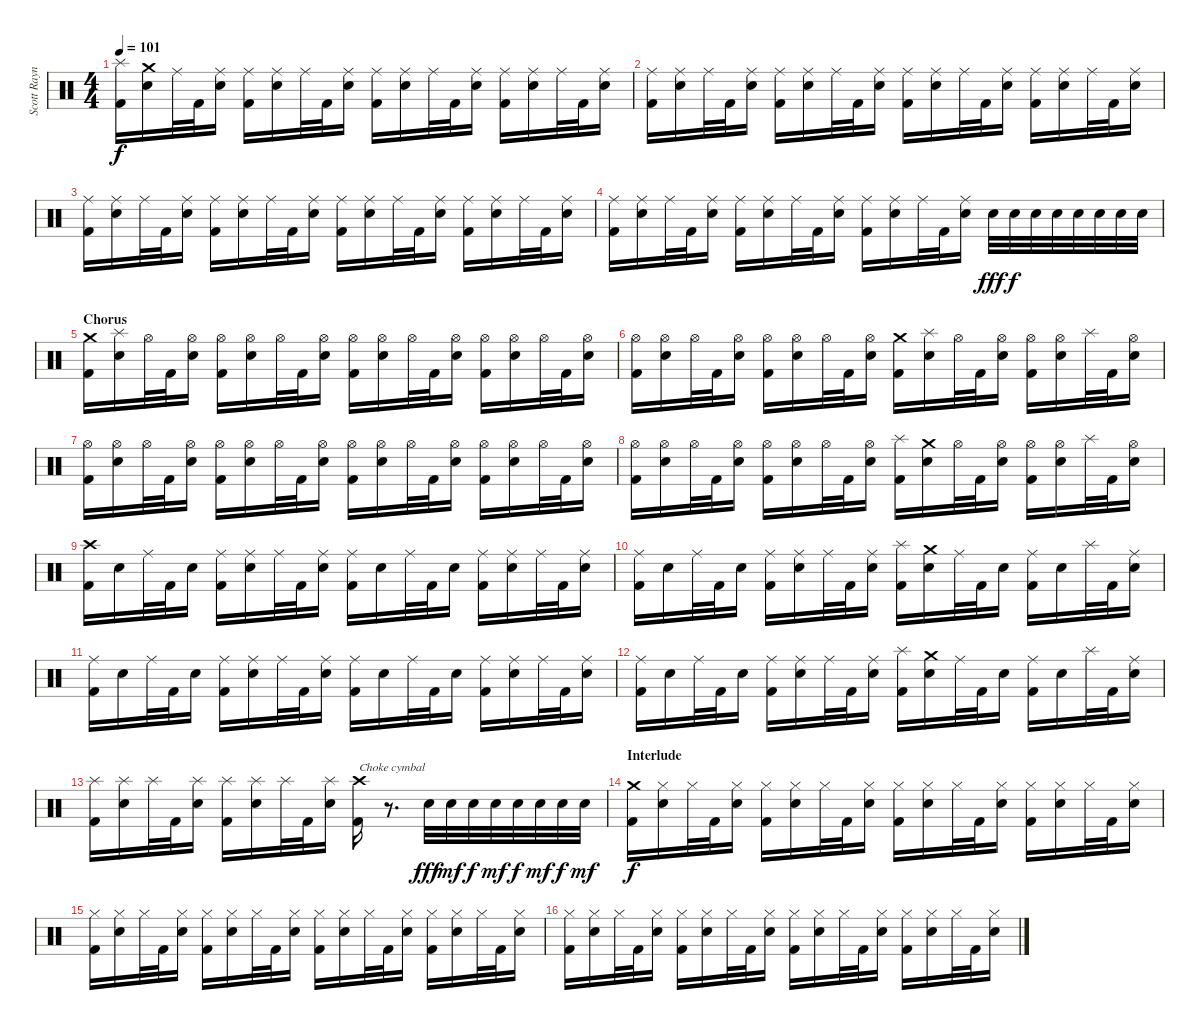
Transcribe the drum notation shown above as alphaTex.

\track ("Scott Raynor" "Scott Rayn") {instrument percussion}
\staff {score}
\articulation defaults
\ts (4 4)
\tempo 101
\clef neutral
\ks c
("Splash (hit)" "Kick (hit) 2").16{dy f} ("Crash medium (hit)" "Electric Snare (hit)").16 "Ride (middle)".32 "Kick (hit) 2".32 ("Ride (middle)" "Electric Snare (hit)").16 ("Ride (middle)" "Kick (hit) 2").16 ("Ride (middle)" "Electric Snare (hit)").16 "Ride (middle)".32 "Kick (hit) 2".32 ("Ride (middle)" "Electric Snare (hit)").16 ("Ride (middle)" "Kick (hit) 2").16 ("Ride (middle)" "Electric Snare (hit)").16 "Ride (middle)".32 "Kick (hit) 2".32 ("Ride (middle)" "Electric Snare (hit)").16 ("Ride (middle)" "Kick (hit) 2").16 ("Ride (middle)" "Electric Snare (hit)").16 "Ride (middle)".32 "Kick (hit) 2".32 ("Ride (middle)" "Electric Snare (hit)").16 |
("Ride (middle)" "Kick (hit) 2").16 ("Ride (middle)" "Electric Snare (hit)").16 "Ride (middle)".32 "Kick (hit) 2".32 ("Ride (middle)" "Electric Snare (hit)").16 ("Ride (middle)" "Kick (hit) 2").16 ("Ride (middle)" "Electric Snare (hit)").16 "Ride (middle)".32 "Kick (hit) 2".32 ("Ride (middle)" "Electric Snare (hit)").16 ("Ride (middle)" "Kick (hit) 2").16 ("Ride (middle)" "Electric Snare (hit)").16 "Ride (middle)".32 "Kick (hit) 2".32 ("Ride (middle)" "Electric Snare (hit)").16 ("Ride (middle)" "Kick (hit) 2").16 ("Ride (middle)" "Electric Snare (hit)").16 "Ride (middle)".32 "Kick (hit) 2".32 ("Ride (middle)" "Electric Snare (hit)").16 |
("Ride (middle)" "Kick (hit) 2").16 ("Ride (middle)" "Electric Snare (hit)").16 "Ride (middle)".32 "Kick (hit) 2".32 ("Ride (middle)" "Electric Snare (hit)").16 ("Ride (middle)" "Kick (hit) 2").16 ("Ride (middle)" "Electric Snare (hit)").16 "Ride (middle)".32 "Kick (hit) 2".32 ("Ride (middle)" "Electric Snare (hit)").16 ("Ride (middle)" "Kick (hit) 2").16 ("Ride (middle)" "Electric Snare (hit)").16 "Ride (middle)".32 "Kick (hit) 2".32 ("Ride (middle)" "Electric Snare (hit)").16 ("Ride (middle)" "Kick (hit) 2").16 ("Ride (middle)" "Electric Snare (hit)").16 "Ride (middle)".32 "Kick (hit) 2".32 ("Ride (middle)" "Electric Snare (hit)").16 |
("Ride (middle)" "Kick (hit) 2").16 ("Ride (middle)" "Electric Snare (hit)").16 "Ride (middle)".32 "Kick (hit) 2".32 ("Ride (middle)" "Electric Snare (hit)").16 ("Ride (middle)" "Kick (hit) 2").16 ("Ride (middle)" "Electric Snare (hit)").16 "Ride (middle)".32 "Kick (hit) 2".32 ("Ride (middle)" "Electric Snare (hit)").16 ("Ride (middle)" "Kick (hit) 2").16 ("Ride (middle)" "Electric Snare (hit)").16 "Ride (middle)".32 "Kick (hit) 2".32 ("Ride (middle)" "Electric Snare (hit)").16 "Electric Snare (hit)".32{dy fff} "Electric Snare (hit)".32{dy f} "Electric Snare (hit)".32 "Electric Snare (hit)".32 "Electric Snare (hit)".32 "Electric Snare (hit)".32 "Electric Snare (hit)".32 "Electric Snare (hit)".32 |
\section ("" "Chorus")
("Crash medium (hit)" "Kick (hit) 2").16 ("Splash (hit)" "Electric Snare (hit)").16 "Hi-Hat (open)".32 "Kick (hit) 2".32 ("Hi-Hat (open)" "Electric Snare (hit)").16 ("Hi-Hat (open)" "Kick (hit) 2").16 ("Hi-Hat (open)" "Electric Snare (hit)").16 "Hi-Hat (open)".32 "Kick (hit) 2".32 ("Hi-Hat (open)" "Electric Snare (hit)").16 ("Hi-Hat (open)" "Kick (hit) 2").16 ("Hi-Hat (open)" "Electric Snare (hit)").16 "Hi-Hat (open)".32 "Kick (hit) 2".32 ("Hi-Hat (open)" "Electric Snare (hit)").16 ("Hi-Hat (open)" "Kick (hit) 2").16 ("Hi-Hat (open)" "Electric Snare (hit)").16 "Hi-Hat (open)".32 "Kick (hit) 2".32 ("Hi-Hat (open)" "Electric Snare (hit)").16 |
("Hi-Hat (open)" "Kick (hit) 2").16 ("Hi-Hat (open)" "Electric Snare (hit)").16 "Hi-Hat (open)".32 "Kick (hit) 2".32 ("Hi-Hat (open)" "Electric Snare (hit)").16 ("Hi-Hat (open)" "Kick (hit) 2").16 ("Hi-Hat (open)" "Electric Snare (hit)").16 "Hi-Hat (open)".32 "Kick (hit) 2".32 ("Hi-Hat (open)" "Electric Snare (hit)").16 ("Crash medium (hit)" "Kick (hit) 2").16 ("Splash (hit)" "Electric Snare (hit)").16 "Hi-Hat (open)".32 "Kick (hit) 2".32 ("Hi-Hat (open)" "Electric Snare (hit)").16 ("Hi-Hat (open)" "Kick (hit) 2").16 ("Hi-Hat (open)" "Electric Snare (hit)").16 "Splash (hit)".32 "Kick (hit) 2".32 ("Hi-Hat (open)" "Electric Snare (hit)").16 |
("Hi-Hat (open)" "Kick (hit) 2").16 ("Hi-Hat (open)" "Electric Snare (hit)").16 "Hi-Hat (open)".32 "Kick (hit) 2".32 ("Hi-Hat (open)" "Electric Snare (hit)").16 ("Hi-Hat (open)" "Kick (hit) 2").16 ("Hi-Hat (open)" "Electric Snare (hit)").16 "Hi-Hat (open)".32 "Kick (hit) 2".32 ("Hi-Hat (open)" "Electric Snare (hit)").16 ("Hi-Hat (open)" "Kick (hit) 2").16 ("Hi-Hat (open)" "Electric Snare (hit)").16 "Hi-Hat (open)".32 "Kick (hit) 2".32 ("Hi-Hat (open)" "Electric Snare (hit)").16 ("Hi-Hat (open)" "Kick (hit) 2").16 ("Hi-Hat (open)" "Electric Snare (hit)").16 "Hi-Hat (open)".32 "Kick (hit) 2".32 ("Hi-Hat (open)" "Electric Snare (hit)").16 |
("Hi-Hat (open)" "Kick (hit) 2").16 ("Hi-Hat (open)" "Electric Snare (hit)").16 "Hi-Hat (open)".32 "Kick (hit) 2".32 ("Hi-Hat (open)" "Electric Snare (hit)").16 ("Hi-Hat (open)" "Kick (hit) 2").16 ("Hi-Hat (open)" "Electric Snare (hit)").16 "Hi-Hat (open)".32 "Kick (hit) 2".32 ("Hi-Hat (open)" "Electric Snare (hit)").16 ("Splash (hit)" "Kick (hit) 2").16 ("Crash medium (hit)" "Electric Snare (hit)").16 "Hi-Hat (open)".32 "Kick (hit) 2".32 ("Hi-Hat (open)" "Electric Snare (hit)").16 ("Hi-Hat (open)" "Kick (hit) 2").16 ("Hi-Hat (open)" "Electric Snare (hit)").16 "Splash (hit)".32 "Kick (hit) 2".32 ("Hi-Hat (open)" "Electric Snare (hit)").16 |
("Crash high (hit)" "Kick (hit) 2").16 "Electric Snare (hit)".16 "Ride (middle)".32 "Kick (hit) 2".32 "Electric Snare (hit)".16 ("Ride (middle)" "Kick (hit) 2").16 ("Ride (middle)" "Electric Snare (hit)").16 "Ride (middle)".32 "Kick (hit) 2".32 ("Ride (middle)" "Electric Snare (hit)").16 ("Ride (middle)" "Kick (hit) 2").16 "Electric Snare (hit)".16 "Ride (middle)".32 "Kick (hit) 2".32 "Electric Snare (hit)".16 ("Ride (middle)" "Kick (hit) 2").16 ("Ride (middle)" "Electric Snare (hit)").16 "Ride (middle)".32 "Kick (hit) 2".32 ("Ride (middle)" "Electric Snare (hit)").16 |
("Ride (middle)" "Kick (hit) 2").16 "Electric Snare (hit)".16 "Ride (middle)".32 "Kick (hit) 2".32 "Electric Snare (hit)".16 ("Ride (middle)" "Kick (hit) 2").16 ("Ride (middle)" "Electric Snare (hit)").16 "Ride (middle)".32 "Kick (hit) 2".32 ("Ride (middle)" "Electric Snare (hit)").16 ("Splash (hit)" "Kick (hit) 2").16 ("Crash medium (hit)" "Electric Snare (hit)").16 "Ride (middle)".32 "Kick (hit) 2".32 "Electric Snare (hit)".16 ("Ride (middle)" "Kick (hit) 2").16 "Electric Snare (hit)".16 "Splash (hit)".32 "Kick (hit) 2".32 ("Ride (middle)" "Electric Snare (hit)").16 |
("Ride (middle)" "Kick (hit) 2").16 "Electric Snare (hit)".16 "Ride (middle)".32 "Kick (hit) 2".32 "Electric Snare (hit)".16 ("Ride (middle)" "Kick (hit) 2").16 ("Ride (middle)" "Electric Snare (hit)").16 "Ride (middle)".32 "Kick (hit) 2".32 ("Ride (middle)" "Electric Snare (hit)").16 ("Ride (middle)" "Kick (hit) 2").16 "Electric Snare (hit)".16 "Ride (middle)".32 "Kick (hit) 2".32 "Electric Snare (hit)".16 ("Ride (middle)" "Kick (hit) 2").16 ("Ride (middle)" "Electric Snare (hit)").16 "Ride (middle)".32 "Kick (hit) 2".32 ("Ride (middle)" "Electric Snare (hit)").16 |
("Ride (middle)" "Kick (hit) 2").16 "Electric Snare (hit)".16 "Ride (middle)".32 "Kick (hit) 2".32 "Electric Snare (hit)".16 ("Ride (middle)" "Kick (hit) 2").16 ("Ride (middle)" "Electric Snare (hit)").16 "Ride (middle)".32 "Kick (hit) 2".32 ("Ride (middle)" "Electric Snare (hit)").16 ("Splash (hit)" "Kick (hit) 2").16 ("Crash medium (hit)" "Electric Snare (hit)").16 "Ride (middle)".32 "Kick (hit) 2".32 "Electric Snare (hit)".16 ("Ride (middle)" "Kick (hit) 2").16 "Electric Snare (hit)".16 "Splash (hit)".32 "Kick (hit) 2".32 ("Ride (middle)" "Electric Snare (hit)").16 |
("Splash (hit)" "Kick (hit) 2").16 ("Splash (hit)" "Electric Snare (hit)").16 "Splash (hit)".32 "Kick (hit) 2".32 ("Splash (hit)" "Electric Snare (hit)").16 ("Splash (hit)" "Kick (hit) 2").16 ("Splash (hit)" "Electric Snare (hit)").16 "Splash (hit)".32 "Kick (hit) 2".32 ("Splash (hit)" "Electric Snare (hit)").16 ("Crash high (hit)" "Kick (hit) 2").16{txt "Choke cymbal"} r.8{d} "Electric Snare (hit)".32{dy fff} "Electric Snare (hit)".32{dy mf} "Electric Snare (hit)".32{dy f} "Electric Snare (hit)".32{dy mf} "Electric Snare (hit)".32{dy f} "Electric Snare (hit)".32{dy mf} "Electric Snare (hit)".32{dy f} "Electric Snare (hit)".32{dy mf} |
\section ("" "Interlude")
("Crash medium (hit)" "Kick (hit) 2").16{dy f} ("Hi-Hat (closed)" "Electric Snare (hit)").16 "Hi-Hat (closed)".32 "Kick (hit) 2".32 ("Hi-Hat (closed)" "Electric Snare (hit)").16 ("Hi-Hat (closed)" "Kick (hit) 2").16 ("Hi-Hat (closed)" "Electric Snare (hit)").16 "Hi-Hat (closed)".32 "Kick (hit) 2".32 ("Hi-Hat (closed)" "Electric Snare (hit)").16 ("Hi-Hat (closed)" "Kick (hit) 2").16 ("Hi-Hat (closed)" "Electric Snare (hit)").16 "Hi-Hat (closed)".32 "Kick (hit) 2".32 ("Hi-Hat (closed)" "Electric Snare (hit)").16 ("Hi-Hat (closed)" "Kick (hit) 2").16 ("Hi-Hat (closed)" "Electric Snare (hit)").16 "Hi-Hat (closed)".32 "Kick (hit) 2".32 ("Hi-Hat (closed)" "Electric Snare (hit)").16 |
("Hi-Hat (closed)" "Kick (hit) 2").16 ("Hi-Hat (closed)" "Electric Snare (hit)").16 "Hi-Hat (closed)".32 "Kick (hit) 2".32 ("Hi-Hat (closed)" "Electric Snare (hit)").16 ("Hi-Hat (closed)" "Kick (hit) 2").16 ("Hi-Hat (closed)" "Electric Snare (hit)").16 "Hi-Hat (closed)".32 "Kick (hit) 2".32 ("Hi-Hat (closed)" "Electric Snare (hit)").16 ("Hi-Hat (closed)" "Kick (hit) 2").16 ("Hi-Hat (closed)" "Electric Snare (hit)").16 "Hi-Hat (closed)".32 "Kick (hit) 2".32 ("Hi-Hat (closed)" "Electric Snare (hit)").16 ("Hi-Hat (closed)" "Kick (hit) 2").16 ("Hi-Hat (closed)" "Electric Snare (hit)").16 "Hi-Hat (closed)".32 "Kick (hit) 2".32 ("Hi-Hat (closed)" "Electric Snare (hit)").16 |
("Hi-Hat (closed)" "Kick (hit) 2").16 ("Hi-Hat (closed)" "Electric Snare (hit)").16 "Hi-Hat (closed)".32 "Kick (hit) 2".32 ("Hi-Hat (closed)" "Electric Snare (hit)").16 ("Hi-Hat (closed)" "Kick (hit) 2").16 ("Hi-Hat (closed)" "Electric Snare (hit)").16 "Hi-Hat (closed)".32 "Kick (hit) 2".32 ("Hi-Hat (closed)" "Electric Snare (hit)").16 ("Hi-Hat (closed)" "Kick (hit) 2").16 ("Hi-Hat (closed)" "Electric Snare (hit)").16 "Hi-Hat (closed)".32 "Kick (hit) 2".32 ("Hi-Hat (closed)" "Electric Snare (hit)").16 ("Hi-Hat (closed)" "Kick (hit) 2").16 ("Hi-Hat (closed)" "Electric Snare (hit)").16 "Hi-Hat (closed)".32 "Kick (hit) 2".32 ("Hi-Hat (closed)" "Electric Snare (hit)").16
